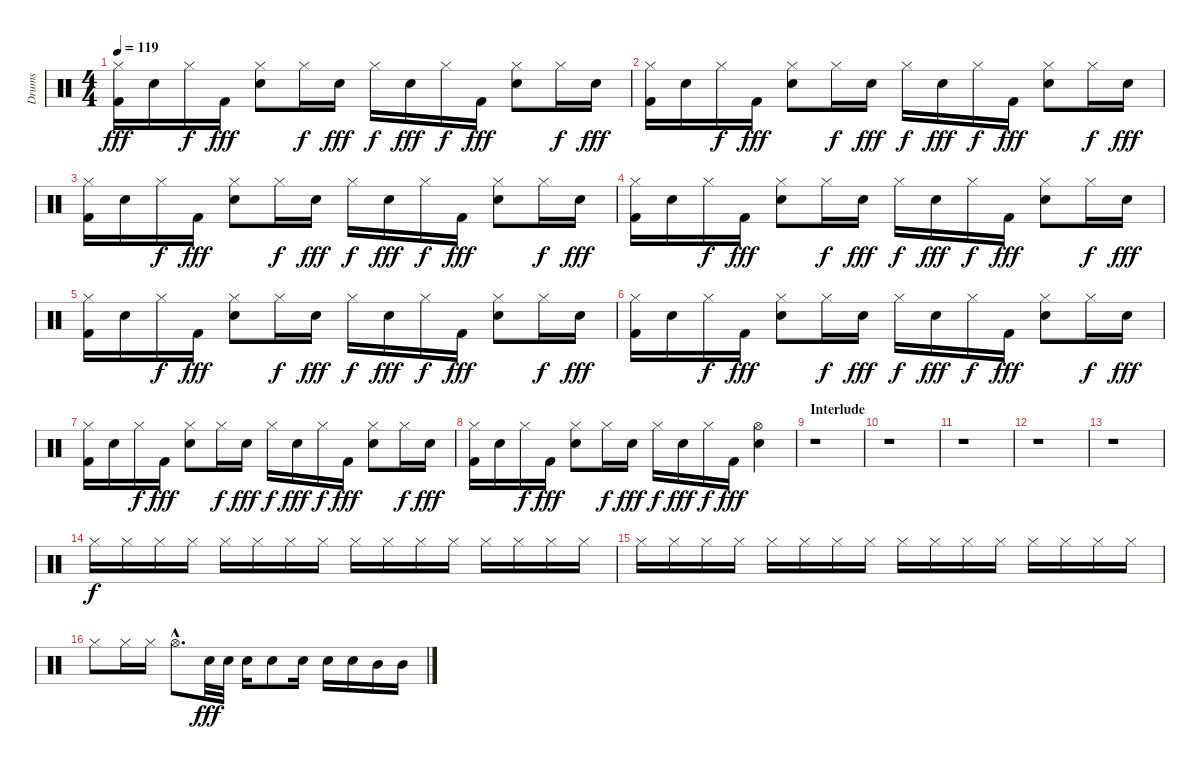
\track ("Drums" "Drums") {instrument percussion}
\staff {score}
\articulation defaults
\ts (4 4)
\tempo 119
\clef neutral
\ks c
("Hi-Hat (closed)" "Kick (hit) 2").16{dy fff} "Electric Snare (hit)".16 "Hi-Hat (closed)".16{dy f} "Kick (hit) 2".16{dy fff} ("Hi-Hat (closed)" "Electric Snare (hit)").8 "Hi-Hat (closed)".16{dy f} "Electric Snare (hit)".16{dy fff} "Hi-Hat (closed)".16{dy f} "Electric Snare (hit)".16{dy fff} "Hi-Hat (closed)".16{dy f} "Kick (hit) 2".16{dy fff} ("Hi-Hat (closed)" "Electric Snare (hit)").8 "Hi-Hat (closed)".16{dy f} "Electric Snare (hit)".16{dy fff} |
("Hi-Hat (closed)" "Kick (hit) 2").16 "Electric Snare (hit)".16 "Hi-Hat (closed)".16{dy f} "Kick (hit) 2".16{dy fff} ("Hi-Hat (closed)" "Electric Snare (hit)").8 "Hi-Hat (closed)".16{dy f} "Electric Snare (hit)".16{dy fff} "Hi-Hat (closed)".16{dy f} "Electric Snare (hit)".16{dy fff} "Hi-Hat (closed)".16{dy f} "Kick (hit) 2".16{dy fff} ("Hi-Hat (closed)" "Electric Snare (hit)").8 "Hi-Hat (closed)".16{dy f} "Electric Snare (hit)".16{dy fff} |
("Hi-Hat (closed)" "Kick (hit) 2").16 "Electric Snare (hit)".16 "Hi-Hat (closed)".16{dy f} "Kick (hit) 2".16{dy fff} ("Hi-Hat (closed)" "Electric Snare (hit)").8 "Hi-Hat (closed)".16{dy f} "Electric Snare (hit)".16{dy fff} "Hi-Hat (closed)".16{dy f} "Electric Snare (hit)".16{dy fff} "Hi-Hat (closed)".16{dy f} "Kick (hit) 2".16{dy fff} ("Hi-Hat (closed)" "Electric Snare (hit)").8 "Hi-Hat (closed)".16{dy f} "Electric Snare (hit)".16{dy fff} |
("Hi-Hat (closed)" "Kick (hit) 2").16 "Electric Snare (hit)".16 "Hi-Hat (closed)".16{dy f} "Kick (hit) 2".16{dy fff} ("Hi-Hat (closed)" "Electric Snare (hit)").8 "Hi-Hat (closed)".16{dy f} "Electric Snare (hit)".16{dy fff} "Hi-Hat (closed)".16{dy f} "Electric Snare (hit)".16{dy fff} "Hi-Hat (closed)".16{dy f} "Kick (hit) 2".16{dy fff} ("Hi-Hat (closed)" "Electric Snare (hit)").8 "Hi-Hat (closed)".16{dy f} "Electric Snare (hit)".16{dy fff} |
("Hi-Hat (closed)" "Kick (hit) 2").16 "Electric Snare (hit)".16 "Hi-Hat (closed)".16{dy f} "Kick (hit) 2".16{dy fff} ("Hi-Hat (closed)" "Electric Snare (hit)").8 "Hi-Hat (closed)".16{dy f} "Electric Snare (hit)".16{dy fff} "Hi-Hat (closed)".16{dy f} "Electric Snare (hit)".16{dy fff} "Hi-Hat (closed)".16{dy f} "Kick (hit) 2".16{dy fff} ("Hi-Hat (closed)" "Electric Snare (hit)").8 "Hi-Hat (closed)".16{dy f} "Electric Snare (hit)".16{dy fff} |
("Hi-Hat (closed)" "Kick (hit) 2").16 "Electric Snare (hit)".16 "Hi-Hat (closed)".16{dy f} "Kick (hit) 2".16{dy fff} ("Hi-Hat (closed)" "Electric Snare (hit)").8 "Hi-Hat (closed)".16{dy f} "Electric Snare (hit)".16{dy fff} "Hi-Hat (closed)".16{dy f} "Electric Snare (hit)".16{dy fff} "Hi-Hat (closed)".16{dy f} "Kick (hit) 2".16{dy fff} ("Hi-Hat (closed)" "Electric Snare (hit)").8 "Hi-Hat (closed)".16{dy f} "Electric Snare (hit)".16{dy fff} |
("Hi-Hat (closed)" "Kick (hit) 2").16 "Electric Snare (hit)".16 "Hi-Hat (closed)".16{dy f} "Kick (hit) 2".16{dy fff} ("Hi-Hat (closed)" "Electric Snare (hit)").8 "Hi-Hat (closed)".16{dy f} "Electric Snare (hit)".16{dy fff} "Hi-Hat (closed)".16{dy f} "Electric Snare (hit)".16{dy fff} "Hi-Hat (closed)".16{dy f} "Kick (hit) 2".16{dy fff} ("Hi-Hat (closed)" "Electric Snare (hit)").8 "Hi-Hat (closed)".16{dy f} "Electric Snare (hit)".16{dy fff} |
("Hi-Hat (closed)" "Kick (hit) 2").16 "Electric Snare (hit)".16 "Hi-Hat (closed)".16{dy f} "Kick (hit) 2".16{dy fff} ("Hi-Hat (closed)" "Electric Snare (hit)").8 "Hi-Hat (closed)".16{dy f} "Electric Snare (hit)".16{dy fff} "Hi-Hat (closed)".16{dy f} "Electric Snare (hit)".16{dy fff} "Hi-Hat (closed)".16{dy f} "Kick (hit) 2".16{dy fff} ("Hi-Hat (open)" "Electric Snare (hit)").4 |
\section ("" "Interlude")
r.1 |
r.1 |
r.1 |
r.1 |
r.1 |
"Hi-Hat (closed)".16{dy f} "Hi-Hat (closed)".16 "Hi-Hat (closed)".16 "Hi-Hat (closed)".16 "Hi-Hat (closed)".16 "Hi-Hat (closed)".16 "Hi-Hat (closed)".16 "Hi-Hat (closed)".16 "Hi-Hat (closed)".16 "Hi-Hat (closed)".16 "Hi-Hat (closed)".16 "Hi-Hat (closed)".16 "Hi-Hat (closed)".16 "Hi-Hat (closed)".16 "Hi-Hat (closed)".16 "Hi-Hat (closed)".16 |
"Hi-Hat (closed)".16 "Hi-Hat (closed)".16 "Hi-Hat (closed)".16 "Hi-Hat (closed)".16 "Hi-Hat (closed)".16 "Hi-Hat (closed)".16 "Hi-Hat (closed)".16 "Hi-Hat (closed)".16 "Hi-Hat (closed)".16 "Hi-Hat (closed)".16 "Hi-Hat (closed)".16 "Hi-Hat (closed)".16 "Hi-Hat (closed)".16 "Hi-Hat (closed)".16 "Hi-Hat (closed)".16 "Hi-Hat (closed)".16 |
"Hi-Hat (closed)".8 "Hi-Hat (closed)".16 "Hi-Hat (closed)".16 "Hi-Hat (open)"{hac}.8{d} "Electric Snare (hit)".32{dy fff} "Electric Snare (hit)".32 "Electric Snare (hit)".16 "Electric Snare (hit)".8 "Electric Snare (hit)".16 "Electric Snare (hit)".16 "Electric Snare (hit)".16 "Mid Tom (hit)".16 "Mid Tom (hit)".16
